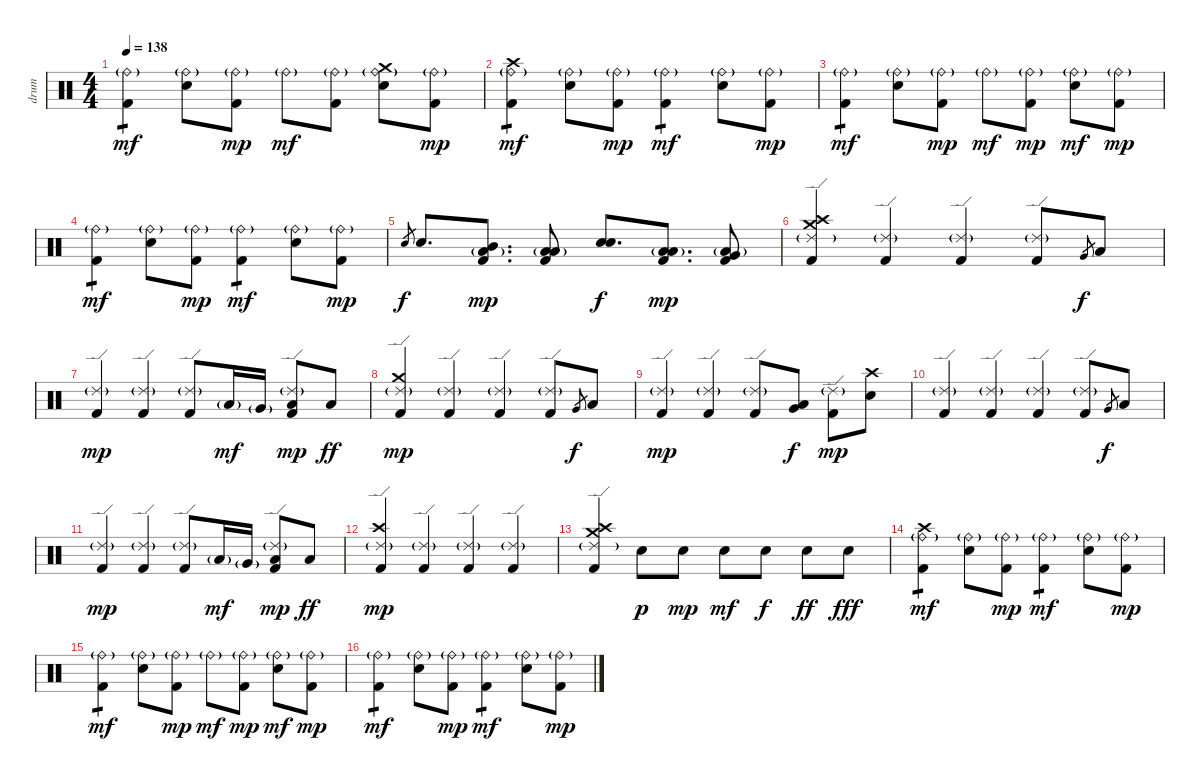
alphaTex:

\track ("drum" "drum") {instrument percussion}
\staff {score}
\articulation defaults
\ts (4 4)
\tempo 138
\clef neutral
\ks c
("Ride (bell)"{g} "Kick (hit) 2").4{tp 1 dy mf} ("Ride (bell)"{g} "Snare (hit) 2").8 ("Ride (bell)"{g} "Kick (hit) 2").8{dy mp} "Ride (bell)"{g}.8{dy mf} ("Ride (bell)"{g} "Kick (hit) 2").8 ("Crash medium (hit)" "Ride (bell)"{g} "Snare (hit) 2").8 ("Ride (bell)"{g} "Kick (hit) 2").8{dy mp} |
("Crash high (hit)" "Ride (bell)"{g} "Kick (hit) 2").4{tp 1 dy mf} ("Ride (bell)"{g} "Snare (hit) 2").8 ("Ride (bell)"{g} "Kick (hit) 2").8{dy mp} ("Ride (bell)"{g} "Kick (hit) 2").4{tp 1 dy mf} ("Ride (bell)"{g} "Snare (hit) 2").8 ("Ride (bell)"{g} "Kick (hit) 2").8{dy mp} |
("Ride (bell)"{g} "Kick (hit) 2").4{tp 1 dy mf} ("Ride (bell)"{g} "Snare (hit) 2").8 ("Ride (bell)"{g} "Kick (hit) 2").8{dy mp} "Ride (bell)"{g}.8{dy mf} ("Ride (bell)"{g} "Kick (hit) 2").8{dy mp} ("Ride (bell)"{g} "Snare (hit) 2").8{dy mf} ("Ride (bell)"{g} "Kick (hit) 2").8{dy mp} |
("Ride (bell)"{g} "Kick (hit) 2").4{tp 1 dy mf} ("Ride (bell)"{g} "Snare (hit) 2").8 ("Ride (bell)"{g} "Kick (hit) 2").8{dy mp} ("Ride (bell)"{g} "Kick (hit) 2").4{tp 1 dy mf} ("Ride (bell)"{g} "Snare (hit) 2").8 ("Ride (bell)"{g} "Kick (hit) 2").8{dy mp} |
"Snare (hit) 2".8{gr dy f} "Snare (hit) 2".8{d} ("Low Floor Tom (hit)"{g} "Mid Tom (hit)" "Kick (hit) 2").8{d dy mp} ("Low Floor Tom (hit)"{g} "Low Tom (hit)" "Kick (hit) 2").8 ("Snare (hit) 2" "Snare (hit) 2").8{d bd 240 dy f} ("Low Floor Tom (hit)"{g} "Low Tom (hit)" "Kick (hit) 2").8{d dy mp} ("Low Floor Tom (hit)"{g} "Very Low Tom (hit)" "Kick (hit) 2").8 |
("Crash high (hit)" "Crash medium (hit)" "Kick (hit) 2" "Ride (edge) 2"{g}).4 ("Kick (hit) 2" "Ride (edge) 2"{g}).4 ("Kick (hit) 2" "Ride (edge) 2"{g}).4 ("Kick (hit) 2" "Ride (edge) 2"{g}).8 "Very Low Tom (hit)".8{gr dy f} "Low Floor Tom (hit)".8 |
("Kick (hit) 2" "Ride (edge) 2"{g}).4{dy mp} ("Kick (hit) 2" "Ride (edge) 2"{g}).4 ("Kick (hit) 2" "Ride (edge) 2"{g}).8 "Low Tom (hit)"{g}.16{dy mf} "Very Low Tom (hit)"{g}.16 ("Low Floor Tom (hit)" "Kick (hit) 2" "Ride (edge) 2"{g}).8{dy mp} "Low Floor Tom (hit)".8{dy ff} |
("Crash medium (hit)" "Kick (hit) 2" "Ride (edge) 2"{g}).4{dy mp} ("Kick (hit) 2" "Ride (edge) 2"{g}).4 ("Kick (hit) 2" "Ride (edge) 2"{g}).4 ("Kick (hit) 2" "Ride (edge) 2"{g}).8 "Very Low Tom (hit)".8{gr dy f} "Low Floor Tom (hit)".8 |
("Kick (hit) 2" "Ride (edge) 2"{g}).4{dy mp} ("Kick (hit) 2" "Ride (edge) 2"{g}).4 ("Kick (hit) 2" "Ride (edge) 2"{g}).8 ("Very Low Tom (hit)" "Low Floor Tom (hit)").8{dy f} ("Kick (hit) 2" "Ride (edge) 2"{g}).8{dy mp} ("Crash high (hit)" "Snare (hit) 2").8 |
("Kick (hit) 2" "Ride (edge) 2"{g}).4 ("Kick (hit) 2" "Ride (edge) 2"{g}).4 ("Kick (hit) 2" "Ride (edge) 2"{g}).4 ("Kick (hit) 2" "Ride (edge) 2"{g}).8 "Very Low Tom (hit)".8{gr dy f} "Low Floor Tom (hit)".8 |
("Kick (hit) 2" "Ride (edge) 2"{g}).4{dy mp} ("Kick (hit) 2" "Ride (edge) 2"{g}).4 ("Kick (hit) 2" "Ride (edge) 2"{g}).8 "Low Tom (hit)"{g}.16{dy mf} "Very Low Tom (hit)"{g}.16 ("Low Floor Tom (hit)" "Kick (hit) 2" "Ride (edge) 2"{g}).8{dy mp} "Low Floor Tom (hit)".8{dy ff} |
("Crash high (hit)" "Kick (hit) 2" "Ride (edge) 2"{g}).4{dy mp} ("Kick (hit) 2" "Ride (edge) 2"{g}).4 ("Kick (hit) 2" "Ride (edge) 2"{g}).4 ("Kick (hit) 2" "Ride (edge) 2"{g}).4 |
("Crash high (hit)" "Crash medium (hit)" "Kick (hit) 2" "Ride (edge) 2"{g}).4 "Snare (hit) 2".8{dy p} "Snare (hit) 2".8{dy mp} "Snare (hit) 2".8{dy mf} "Snare (hit) 2".8{dy f} "Snare (hit) 2".8{dy ff} "Snare (hit) 2".8{dy fff} |
("Crash high (hit)" "Ride (bell)"{g} "Kick (hit) 2").4{tp 1 dy mf} ("Ride (bell)"{g} "Snare (hit) 2").8 ("Ride (bell)"{g} "Kick (hit) 2").8{dy mp} ("Ride (bell)"{g} "Kick (hit) 2").4{tp 1 dy mf} ("Ride (bell)"{g} "Snare (hit) 2").8 ("Ride (bell)"{g} "Kick (hit) 2").8{dy mp} |
("Ride (bell)"{g} "Kick (hit) 2").4{tp 1 dy mf} ("Ride (bell)"{g} "Snare (hit) 2").8 ("Ride (bell)"{g} "Kick (hit) 2").8{dy mp} "Ride (bell)"{g}.8{dy mf} ("Ride (bell)"{g} "Kick (hit) 2").8{dy mp} ("Ride (bell)"{g} "Snare (hit) 2").8{dy mf} ("Ride (bell)"{g} "Kick (hit) 2").8{dy mp} |
("Ride (bell)"{g} "Kick (hit) 2").4{tp 1 dy mf} ("Ride (bell)"{g} "Snare (hit) 2").8 ("Ride (bell)"{g} "Kick (hit) 2").8{dy mp} ("Ride (bell)"{g} "Kick (hit) 2").4{tp 1 dy mf} ("Ride (bell)"{g} "Snare (hit) 2").8 ("Ride (bell)"{g} "Kick (hit) 2").8{dy mp}
